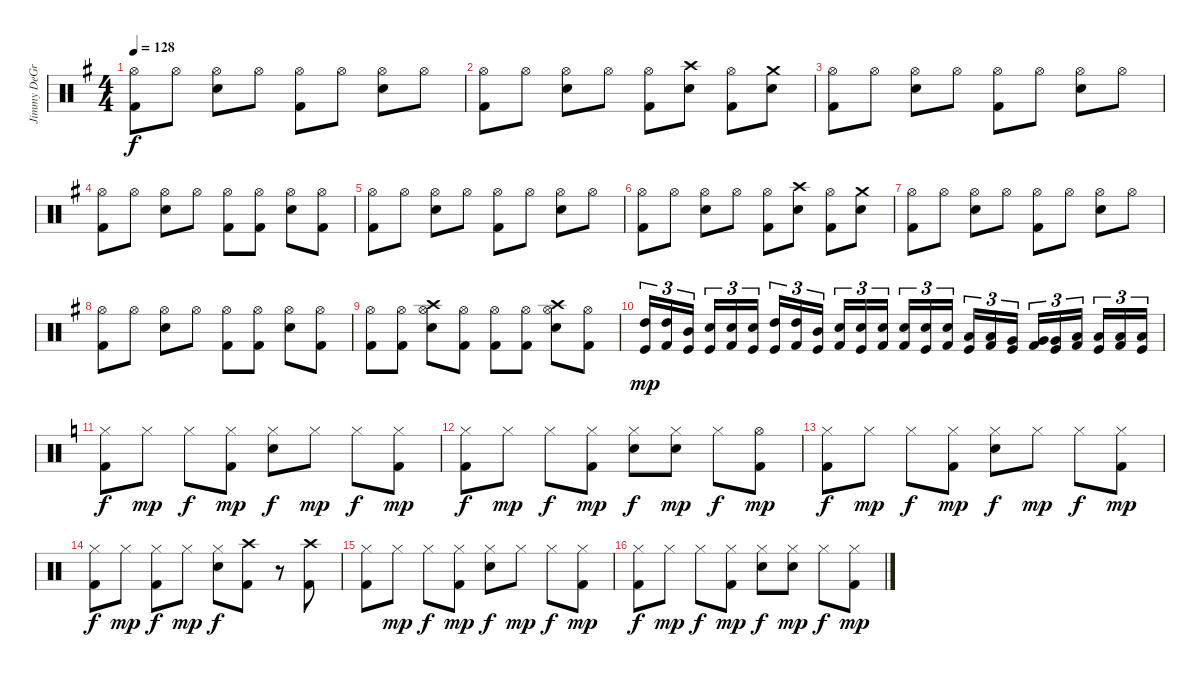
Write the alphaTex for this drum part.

\track ("Jimmy DeGrasso" "Jimmy DeGr") {instrument percussion}
\staff {score}
\articulation defaults
\ts (4 4)
\tempo 128
\clef neutral
\ks g
("Hi-Hat (open)" "Kick (hit) 2").8{dy f} "Hi-Hat (open)".8 ("Hi-Hat (open)" "Snare (hit) 2").8 "Hi-Hat (open)".8 ("Hi-Hat (open)" "Kick (hit) 2").8 "Hi-Hat (open)".8 ("Hi-Hat (open)" "Snare (hit) 2").8 "Hi-Hat (open)".8 |
("Hi-Hat (open)" "Kick (hit) 2").8 "Hi-Hat (open)".8 ("Hi-Hat (open)" "Snare (hit) 2").8 "Hi-Hat (open)".8 ("Hi-Hat (open)" "Kick (hit) 2").8 ("Crash high (hit)" "Snare (hit) 2").8 ("Hi-Hat (open)" "Kick (hit) 2").8 ("Crash medium (hit)" "Snare (hit) 2").8 |
("Hi-Hat (open)" "Kick (hit) 2").8 "Hi-Hat (open)".8 ("Hi-Hat (open)" "Snare (hit) 2").8 "Hi-Hat (open)".8 ("Hi-Hat (open)" "Kick (hit) 2").8 "Hi-Hat (open)".8 ("Hi-Hat (open)" "Snare (hit) 2").8 "Hi-Hat (open)".8 |
("Hi-Hat (open)" "Kick (hit) 2").8 "Hi-Hat (open)".8 ("Hi-Hat (open)" "Snare (hit) 2").8 "Hi-Hat (open)".8 ("Hi-Hat (open)" "Kick (hit) 2").8 ("Hi-Hat (open)" "Kick (hit) 2").8 ("Hi-Hat (open)" "Snare (hit) 2").8 ("Hi-Hat (open)" "Kick (hit) 2").8 |
("Hi-Hat (open)" "Kick (hit) 2").8 "Hi-Hat (open)".8 ("Hi-Hat (open)" "Snare (hit) 2").8 "Hi-Hat (open)".8 ("Hi-Hat (open)" "Kick (hit) 2").8 "Hi-Hat (open)".8 ("Hi-Hat (open)" "Snare (hit) 2").8 "Hi-Hat (open)".8 |
("Hi-Hat (open)" "Kick (hit) 2").8 "Hi-Hat (open)".8 ("Hi-Hat (open)" "Snare (hit) 2").8 "Hi-Hat (open)".8 ("Hi-Hat (open)" "Kick (hit) 2").8 ("Crash high (hit)" "Snare (hit) 2").8 ("Hi-Hat (open)" "Kick (hit) 2").8 ("Crash medium (hit)" "Snare (hit) 2").8 |
("Hi-Hat (open)" "Kick (hit) 2").8 "Hi-Hat (open)".8 ("Hi-Hat (open)" "Snare (hit) 2").8 "Hi-Hat (open)".8 ("Hi-Hat (open)" "Kick (hit) 2").8 "Hi-Hat (open)".8 ("Hi-Hat (open)" "Snare (hit) 2").8 "Hi-Hat (open)".8 |
("Hi-Hat (open)" "Kick (hit) 2").8 "Hi-Hat (open)".8 ("Hi-Hat (open)" "Snare (hit) 2").8 "Hi-Hat (open)".8 ("Hi-Hat (open)" "Kick (hit) 2").8 ("Hi-Hat (open)" "Kick (hit) 2").8 ("Hi-Hat (open)" "Snare (hit) 2").8 ("Hi-Hat (open)" "Kick (hit) 2").8 |
("Hi-Hat (open)" "Kick (hit) 2").8 ("Hi-Hat (open)" "Kick (hit) 2").8 ("Hi-Hat (open)" "Crash high (hit)" "Snare (hit) 2").8 ("Hi-Hat (open)" "Kick (hit) 2").8 ("Hi-Hat (open)" "Kick (hit) 2").8 ("Hi-Hat (open)" "Kick (hit) 2").8 ("Hi-Hat (open)" "Crash high (hit)" "Snare (hit) 2").8 ("Hi-Hat (open)" "Kick (hit) 2").8 |
("High Tom (hit)" "Kick (hit)").16{tu (3 2) dy mp} ("High Tom (hit)" "Kick (hit) 2").16{tu (3 2)} ("Mid Tom (hit)" "Kick (hit)").16{tu (3 2) beam splitsecondary} ("Snare (hit) 2" "Kick (hit)").16{tu (3 2)} ("Snare (hit) 2" "Kick (hit) 2").16{tu (3 2)} ("Snare (hit) 2" "Kick (hit)").16{tu (3 2)} ("High Tom (hit)" "Kick (hit)").16{tu (3 2)} ("High Tom (hit)" "Kick (hit) 2").16{tu (3 2)} ("Mid Tom (hit)" "Kick (hit)").16{tu (3 2) beam splitsecondary} ("Snare (hit) 2" "Kick (hit) 2").16{tu (3 2)} ("Snare (hit) 2" "Kick (hit)").16{tu (3 2)} ("Snare (hit) 2" "Kick (hit) 2").16{tu (3 2)} ("Snare (hit) 2" "Kick (hit) 2").16{tu (3 2)} ("Snare (hit) 2" "Kick (hit)").16{tu (3 2)} ("Snare (hit) 2" "Kick (hit) 2").16{tu (3 2) beam splitsecondary} ("Low Tom (hit)" "Kick (hit)").16{tu (3 2)} ("Low Tom (hit)" "Kick (hit) 2").16{tu (3 2)} ("Very Low Tom (hit)" "Kick (hit)").16{tu (3 2)} ("Very Low Tom (hit)" "Kick (hit) 2").16{tu (3 2)} ("Very Low Tom (hit)" "Kick (hit)").16{tu (3 2)} ("Low Floor Tom (hit)" "Kick (hit) 2").16{tu (3 2) beam splitsecondary} ("Low Floor Tom (hit)" "Kick (hit)").16{tu (3 2)} ("Low Floor Tom (hit)" "Kick (hit) 2").16{tu (3 2)} ("Low Floor Tom (hit)" "Kick (hit)").16{tu (3 2)} |
\ks c
("Hi-Hat (closed)" "Kick (hit) 2").8{dy f} "Hi-Hat (closed)".8{dy mp} "Hi-Hat (closed)".8{dy f} ("Hi-Hat (closed)" "Kick (hit) 2").8{dy mp} ("Hi-Hat (closed)" "Snare (hit) 2").8{dy f} "Hi-Hat (closed)".8{dy mp} "Hi-Hat (closed)".8{dy f} ("Hi-Hat (closed)" "Kick (hit) 2").8{dy mp} |
("Hi-Hat (closed)" "Kick (hit) 2").8{dy f} "Hi-Hat (closed)".8{dy mp} "Hi-Hat (closed)".8{dy f} ("Hi-Hat (closed)" "Kick (hit) 2").8{dy mp} ("Hi-Hat (closed)" "Snare (hit) 2").8{dy f} ("Hi-Hat (closed)" "Snare (hit) 2").8{dy mp} "Hi-Hat (closed)".8{dy f} ("Hi-Hat (open)" "Kick (hit) 2").8{dy mp} |
("Hi-Hat (closed)" "Kick (hit) 2").8{dy f} "Hi-Hat (closed)".8{dy mp} "Hi-Hat (closed)".8{dy f} ("Hi-Hat (closed)" "Kick (hit) 2").8{dy mp} ("Hi-Hat (closed)" "Snare (hit) 2").8{dy f} "Hi-Hat (closed)".8{dy mp} "Hi-Hat (closed)".8{dy f} ("Hi-Hat (closed)" "Kick (hit) 2").8{dy mp} |
("Hi-Hat (closed)" "Kick (hit) 2").8{dy f} "Hi-Hat (closed)".8{dy mp} ("Hi-Hat (closed)" "Kick (hit) 2").8{dy f} "Hi-Hat (closed)".8{dy mp} ("Hi-Hat (closed)" "Snare (hit) 2").8{dy f} ("Crash high (hit)" "Kick (hit) 2").8 r.8 ("Crash high (hit)" "Kick (hit) 2").8 |
("Hi-Hat (closed)" "Kick (hit) 2").8 "Hi-Hat (closed)".8{dy mp} "Hi-Hat (closed)".8{dy f} ("Hi-Hat (closed)" "Kick (hit) 2").8{dy mp} ("Hi-Hat (closed)" "Snare (hit) 2").8{dy f} "Hi-Hat (closed)".8{dy mp} "Hi-Hat (closed)".8{dy f} ("Hi-Hat (closed)" "Kick (hit) 2").8{dy mp} |
("Hi-Hat (closed)" "Kick (hit) 2").8{dy f} "Hi-Hat (closed)".8{dy mp} "Hi-Hat (closed)".8{dy f} ("Hi-Hat (closed)" "Kick (hit) 2").8{dy mp} ("Hi-Hat (closed)" "Snare (hit) 2").8{dy f} ("Hi-Hat (closed)" "Snare (hit) 2").8{dy mp} "Hi-Hat (closed)".8{dy f} ("Hi-Hat (closed)" "Kick (hit) 2").8{dy mp}
